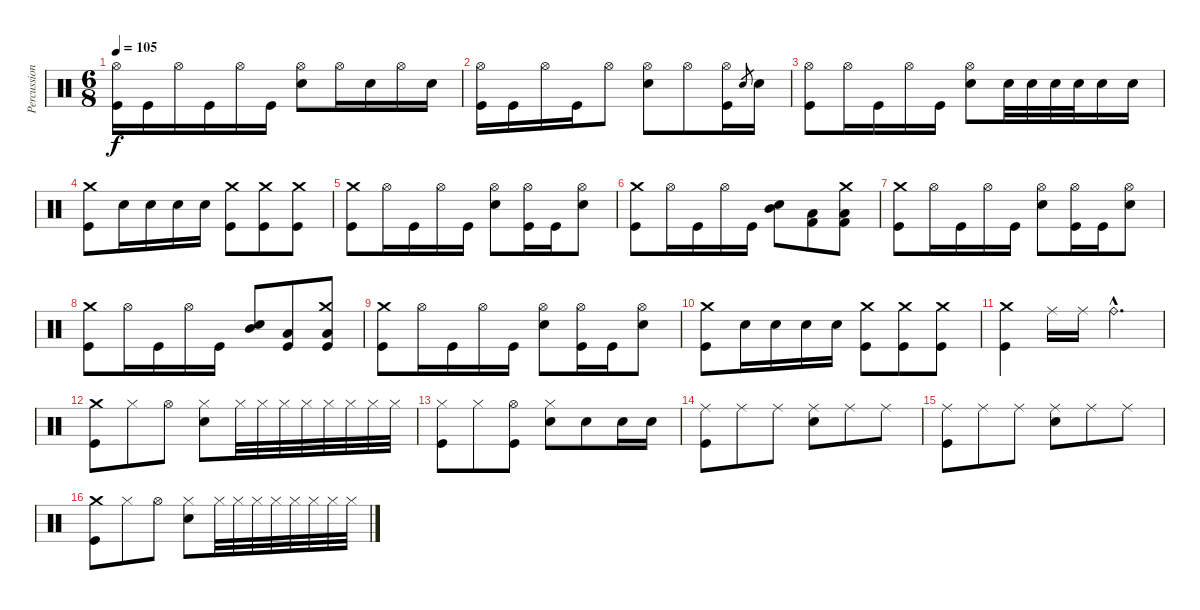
\track ("Percussion" "Percussion") {instrument percussion}
\staff {score}
\articulation defaults
\ts (6 8)
\tempo 105
\clef neutral
\ks c
("Hi-Hat (open)" "Kick (hit)").16{dy f} "Kick (hit)".16 "Hi-Hat (open)".16 "Kick (hit)".16 "Hi-Hat (open)".16 "Kick (hit)".16 ("Hi-Hat (open)" "Electric Snare (hit)").8 "Hi-Hat (open)".16 "Electric Snare (hit)".16 "Hi-Hat (open)".16 "Electric Snare (hit)".16 |
("Hi-Hat (open)" "Kick (hit)").16 "Kick (hit)".16 "Hi-Hat (open)".16 "Kick (hit)".16 "Hi-Hat (open)".8 ("Hi-Hat (open)" "Electric Snare (hit)").8 "Hi-Hat (open)".8 ("Hi-Hat (open)" "Kick (hit)").16 "Electric Snare (hit)".8{gr} "Electric Snare (hit)".16 |
("Hi-Hat (open)" "Kick (hit)").8 "Hi-Hat (open)".16 "Kick (hit)".16 "Hi-Hat (open)".16 "Kick (hit)".16 ("Hi-Hat (open)" "Electric Snare (hit)").8 "Electric Snare (hit)".32 "Electric Snare (hit)".32 "Electric Snare (hit)".32 "Electric Snare (hit)".32 "Electric Snare (hit)".16 "Electric Snare (hit)".16 |
("Crash medium (hit)" "Kick (hit)").8 "Electric Snare (hit)".16 "Electric Snare (hit)".16 "Electric Snare (hit)".16 "Electric Snare (hit)".16 ("Crash medium (hit)" "Kick (hit)").8 ("Crash medium (hit)" "Kick (hit)").8 ("Crash medium (hit)" "Kick (hit)").8 |
("Crash medium (hit)" "Kick (hit)").8 "Hi-Hat (open)".16 "Kick (hit)".16 "Hi-Hat (open)".16 "Kick (hit)".16 ("Hi-Hat (open)" "Electric Snare (hit)").8 ("Hi-Hat (open)" "Kick (hit)").16 "Kick (hit)".16 ("Hi-Hat (open)" "Electric Snare (hit)").8 |
("Crash medium (hit)" "Kick (hit)").8 "Hi-Hat (open)".16 "Kick (hit)".16 "Hi-Hat (open)".16 "Kick (hit)".16 ("Electric Snare (hit)" "Mid Tom (hit)").8 ("Low Tom (hit)" "Kick (hit) 2").8 ("Crash medium (hit)" "Low Floor Tom (hit)" "Kick (hit) 2").8 |
("Crash medium (hit)" "Kick (hit)").8 "Hi-Hat (open)".16 "Kick (hit)".16 "Hi-Hat (open)".16 "Kick (hit)".16 ("Hi-Hat (open)" "Electric Snare (hit)").8 ("Hi-Hat (open)" "Kick (hit)").16 "Kick (hit)".16 ("Hi-Hat (open)" "Electric Snare (hit)").8 |
("Crash medium (hit)" "Kick (hit)").8 "Hi-Hat (open)".16 "Kick (hit)".16 "Hi-Hat (open)".16 "Kick (hit)".16 ("Electric Snare (hit)" "Mid Tom (hit)").8 ("Low Tom (hit)" "Kick (hit)").8 ("Crash medium (hit)" "Low Floor Tom (hit)" "Kick (hit)").8 |
("Crash medium (hit)" "Kick (hit)").8 "Hi-Hat (open)".16 "Kick (hit)".16 "Hi-Hat (open)".16 "Kick (hit)".16 ("Hi-Hat (open)" "Electric Snare (hit)").8 ("Hi-Hat (open)" "Kick (hit)").16 "Kick (hit)".16 ("Hi-Hat (open)" "Electric Snare (hit)").8 |
("Crash medium (hit)" "Kick (hit)").8 "Electric Snare (hit)".16 "Electric Snare (hit)".16 "Electric Snare (hit)".16 "Electric Snare (hit)".16 ("Crash medium (hit)" "Kick (hit)").8 ("Crash medium (hit)" "Kick (hit)").8 ("Crash medium (hit)" "Kick (hit)").8 |
("Crash medium (hit)" "Kick (hit)").4 "Ride (middle)".16 "Ride (middle)".16 "Ride (bell)"{hac}.4{d} |
("Crash medium (hit)" "Kick (hit)").8 "Hi-Hat (closed)".8 "Hi-Hat (open)".8 ("Hi-Hat (closed)" "Electric Snare (hit)").8 "Hi-Hat (closed)".32 "Hi-Hat (closed)".32 "Hi-Hat (closed)".32 "Hi-Hat (closed)".32 "Hi-Hat (closed)".32 "Hi-Hat (closed)".32 "Hi-Hat (closed)".32 "Hi-Hat (closed)".32 |
("Hi-Hat (closed)" "Kick (hit)").8 "Hi-Hat (closed)".8 ("Hi-Hat (open)" "Kick (hit)").8 ("Hi-Hat (closed)" "Electric Snare (hit)").8 "Electric Snare (hit)".8 "Electric Snare (hit)".16 "Electric Snare (hit)".16 |
("Ride (middle)" "Kick (hit)").8 "Ride (middle)".8 "Ride (middle)".8 ("Ride (middle)" "Electric Snare (hit)").8 "Ride (middle)".8 "Ride (middle)".8 |
("Ride (middle)" "Kick (hit)").8 "Ride (middle)".8 "Ride (middle)".8 ("Ride (middle)" "Electric Snare (hit)").8 "Ride (middle)".8 "Ride (middle)".8 |
("Crash medium (hit)" "Kick (hit)").8 "Hi-Hat (closed)".8 "Hi-Hat (open)".8 ("Hi-Hat (closed)" "Electric Snare (hit)").8 "Hi-Hat (closed)".32 "Hi-Hat (closed)".32 "Hi-Hat (closed)".32 "Hi-Hat (closed)".32 "Hi-Hat (closed)".32 "Hi-Hat (closed)".32 "Hi-Hat (closed)".32 "Hi-Hat (closed)".32
